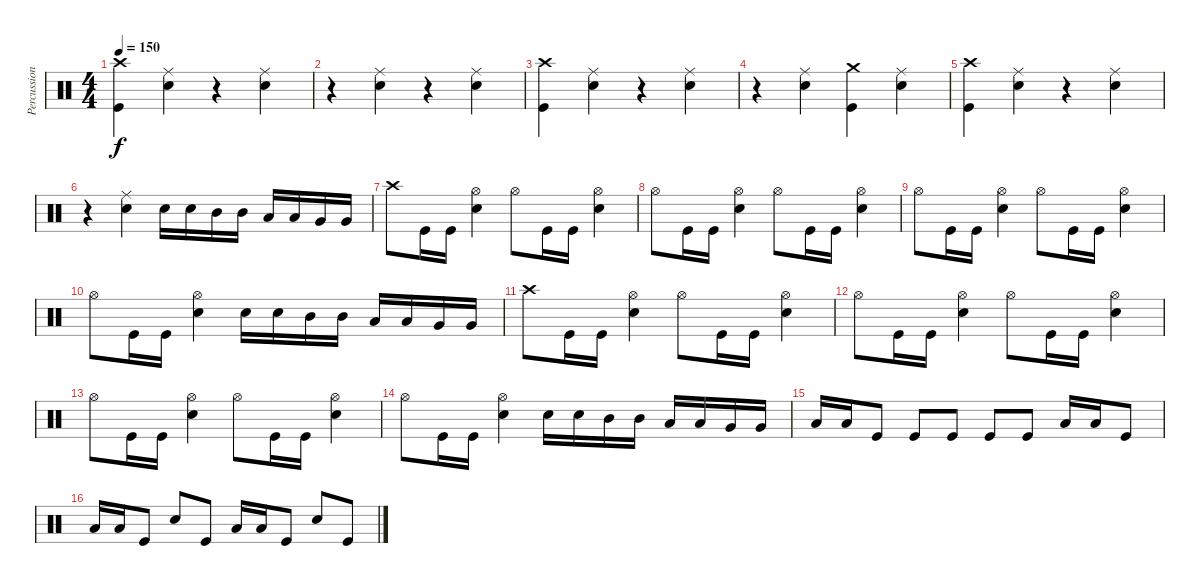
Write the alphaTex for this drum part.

\track ("Percussions" "Percussion") {instrument percussion}
\staff {score}
\articulation defaults
\ts (4 4)
\tempo 150
\clef neutral
\ks c
("Crash high (hit)" "Kick (hit)").4{dy f} ("Ride (middle)" "Electric Snare (hit)").4 r.4 ("Ride (middle)" "Electric Snare (hit)").4 |
r.4 ("Ride (middle)" "Electric Snare (hit)").4 r.4 ("Ride (middle)" "Electric Snare (hit)").4 |
("Crash high (hit)" "Kick (hit)").4 ("Ride (middle)" "Electric Snare (hit)").4 r.4 ("Ride (middle)" "Electric Snare (hit)").4 |
r.4 ("Ride (middle)" "Electric Snare (hit)").4 ("Crash medium (hit)" "Kick (hit)").4 ("Ride (middle)" "Electric Snare (hit)").4 |
("Crash high (hit)" "Kick (hit)").4 ("Ride (middle)" "Electric Snare (hit)").4 r.4 ("Ride (middle)" "Electric Snare (hit)").4 |
r.4 ("Ride (middle)" "Electric Snare (hit)").4 "Electric Snare (hit)".16 "Electric Snare (hit)".16 "Mid Tom (hit)".16 "Mid Tom (hit)".16 "Low Tom (hit)".16 "Low Tom (hit)".16 "Very Low Tom (hit)".16 "Very Low Tom (hit)".16 |
"Crash high (hit)".8 "Kick (hit)".16 "Kick (hit)".16 ("Hi-Hat (open)" "Electric Snare (hit)").4 "Hi-Hat (open)".8 "Kick (hit)".16 "Kick (hit)".16 ("Hi-Hat (open)" "Electric Snare (hit)").4 |
"Hi-Hat (open)".8 "Kick (hit)".16 "Kick (hit)".16 ("Hi-Hat (open)" "Electric Snare (hit)").4 "Hi-Hat (open)".8 "Kick (hit)".16 "Kick (hit)".16 ("Hi-Hat (open)" "Electric Snare (hit)").4 |
"Hi-Hat (open)".8 "Kick (hit)".16 "Kick (hit)".16 ("Hi-Hat (open)" "Electric Snare (hit)").4 "Hi-Hat (open)".8 "Kick (hit)".16 "Kick (hit)".16 ("Hi-Hat (open)" "Electric Snare (hit)").4 |
"Hi-Hat (open)".8 "Kick (hit)".16 "Kick (hit)".16 ("Hi-Hat (open)" "Electric Snare (hit)").4 "Electric Snare (hit)".16 "Electric Snare (hit)".16 "Mid Tom (hit)".16 "Mid Tom (hit)".16 "Low Tom (hit)".16 "Low Tom (hit)".16 "Very Low Tom (hit)".16 "Very Low Tom (hit)".16 |
"Crash high (hit)".8 "Kick (hit)".16 "Kick (hit)".16 ("Hi-Hat (open)" "Electric Snare (hit)").4 "Hi-Hat (open)".8 "Kick (hit)".16 "Kick (hit)".16 ("Hi-Hat (open)" "Electric Snare (hit)").4 |
"Hi-Hat (open)".8 "Kick (hit)".16 "Kick (hit)".16 ("Hi-Hat (open)" "Electric Snare (hit)").4 "Hi-Hat (open)".8 "Kick (hit)".16 "Kick (hit)".16 ("Hi-Hat (open)" "Electric Snare (hit)").4 |
"Hi-Hat (open)".8 "Kick (hit)".16 "Kick (hit)".16 ("Hi-Hat (open)" "Electric Snare (hit)").4 "Hi-Hat (open)".8 "Kick (hit)".16 "Kick (hit)".16 ("Hi-Hat (open)" "Electric Snare (hit)").4 |
"Hi-Hat (open)".8 "Kick (hit)".16 "Kick (hit)".16 ("Hi-Hat (open)" "Electric Snare (hit)").4 "Electric Snare (hit)".16 "Electric Snare (hit)".16 "Mid Tom (hit)".16 "Mid Tom (hit)".16 "Low Tom (hit)".16 "Low Tom (hit)".16 "Very Low Tom (hit)".16 "Very Low Tom (hit)".16 |
"Low Tom (hit)".16 "Low Tom (hit)".16 "Kick (hit)".8 "Kick (hit)".8 "Kick (hit)".8 "Kick (hit)".8 "Kick (hit)".8 "Low Tom (hit)".16 "Low Tom (hit)".16 "Kick (hit)".8 |
"Low Tom (hit)".16 "Low Tom (hit)".16 "Kick (hit)".8 "Electric Snare (hit)".8 "Kick (hit)".8 "Low Tom (hit)".16 "Low Tom (hit)".16 "Kick (hit)".8 "Electric Snare (hit)".8 "Kick (hit)".8
